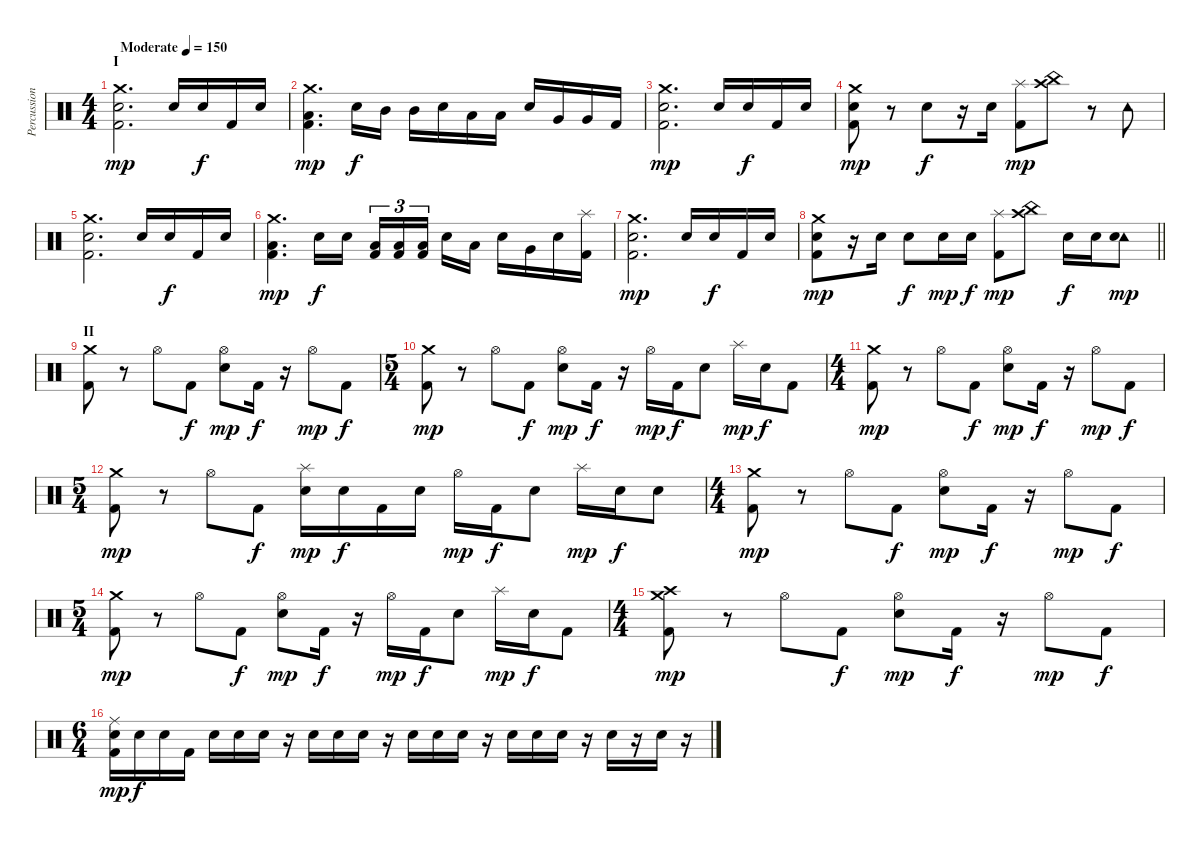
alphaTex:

\track ("Percussion" "Percussion") {instrument percussion}
\staff {score}
\articulation defaults
\ts (4 4)
\section ("" "I")
\tempo (150 "Moderate")
\clef neutral
\ks c
("Crash medium (hit)" "Electric Snare (hit)" "Kick (hit) 2").2{d dy mp} "Electric Snare (hit)".16 "Electric Snare (hit)".16{dy f} "Kick (hit) 2".16 "Electric Snare (hit)".16 |
("Crash medium (hit)" "Low Floor Tom (hit)" "Kick (hit) 2").4{d dy mp} "Electric Snare (hit)".16{dy f} "Mid Tom (hit)".16 "Mid Tom (hit)".16 "Electric Snare (hit)".16 "Low Tom (hit)".16 "Low Tom (hit)".16 "Electric Snare (hit)".16 "Very Low Tom (hit)".16 "Very Low Tom (hit)".16 "Kick (hit) 2".16 |
("Crash medium (hit)" "Electric Snare (hit)" "Kick (hit) 2").2{d dy mp} "Electric Snare (hit)".16 "Electric Snare (hit)".16{dy f} "Kick (hit) 2".16 "Electric Snare (hit)".16 |
("Crash medium (hit)" "Electric Snare (hit)" "Kick (hit) 2").8{dy mp} r.8 "Electric Snare (hit)".8{dy f} r.16 "Electric Snare (hit)".16 ("Splash (hit)" "Kick (hit) 2").8{dy mp} ("Crash high (hit)" "China (hit)").8 r.8 "Tambourine (hit)".8 |
("Crash medium (hit)" "Electric Snare (hit)" "Kick (hit) 2").2{d} "Electric Snare (hit)".16 "Electric Snare (hit)".16{dy f} "Kick (hit) 2".16 "Electric Snare (hit)".16 |
("Crash medium (hit)" "Low Floor Tom (hit)" "Kick (hit) 2").4{d dy mp} "Electric Snare (hit)".16{dy f} "Electric Snare (hit)".16 ("Low Floor Tom (hit)" "Kick (hit) 2").16{tu (3 2)} ("Low Floor Tom (hit)" "Kick (hit) 2").16{tu (3 2)} ("Low Floor Tom (hit)" "Kick (hit) 2").16{tu (3 2) beam splitsecondary} "Electric Snare (hit)".16 "Low Tom (hit)".16 "Electric Snare (hit)".16 "Very Low Tom (hit)".16 "Electric Snare (hit)".16 ("Splash (hit)" "Kick (hit) 2").16 |
("Crash medium (hit)" "Electric Snare (hit)" "Kick (hit) 2").2{d dy mp} "Electric Snare (hit)".16 "Electric Snare (hit)".16{dy f} "Kick (hit) 2".16 "Electric Snare (hit)".16 |
\barLineRight lightlight
("Crash medium (hit)" "Electric Snare (hit)" "Kick (hit) 2").8{dy mp} r.16 "Electric Snare (hit)".16 "Electric Snare (hit)".8{dy f} "Electric Snare (hit)".16{dy mp} "Electric Snare (hit)".16{dy f} ("Splash (hit)" "Kick (hit) 2").8{dy mp} ("Crash high (hit)" "China (hit)").8 "Electric Snare (hit)".16{dy f} "Electric Snare (hit)".16 ("Tambourine (hit)" "Electric Snare (hit)").8{dy mp} |
\section ("" "II")
("Crash medium (hit)" "Kick (hit) 2").8 r.8 "Hi-Hat (open)".8 "Kick (hit) 2".8{dy f} ("Hi-Hat (open)" "Electric Snare (hit)").8{dy mp} "Kick (hit) 2".16{dy f} r.16 "Hi-Hat (open)".8{dy mp} "Kick (hit) 2".8{dy f} |
\ts (5 4)
("Crash medium (hit)" "Kick (hit) 2").8{dy mp} r.8 "Hi-Hat (open)".8 "Kick (hit) 2".8{dy f} ("Hi-Hat (open)" "Electric Snare (hit)").8{dy mp} "Kick (hit) 2".16{dy f} r.16 "Hi-Hat (open)".16{dy mp} "Kick (hit) 2".16{dy f} "Electric Snare (hit)".8 "Splash (hit)".16{dy mp} "Electric Snare (hit)".16{dy f} "Kick (hit) 2".8 |
\ts (4 4)
("Crash medium (hit)" "Kick (hit) 2").8{dy mp} r.8 "Hi-Hat (open)".8 "Kick (hit) 2".8{dy f} ("Hi-Hat (open)" "Electric Snare (hit)").8{dy mp} "Kick (hit) 2".16{dy f} r.16 "Hi-Hat (open)".8{dy mp} "Kick (hit) 2".8{dy f} |
\ts (5 4)
("Crash medium (hit)" "Kick (hit) 2").8{dy mp} r.8 "Hi-Hat (open)".8 "Kick (hit) 2".8{dy f} ("Splash (hit)" "Electric Snare (hit)").16{dy mp} "Electric Snare (hit)".16{dy f} "Kick (hit) 2".16 "Electric Snare (hit)".16 "Hi-Hat (open)".16{dy mp} "Kick (hit) 2".16{dy f} "Electric Snare (hit)".8 "Splash (hit)".16{dy mp} "Electric Snare (hit)".16{dy f} "Electric Snare (hit)".8 |
\ts (4 4)
("Crash medium (hit)" "Kick (hit) 2").8{dy mp} r.8 "Hi-Hat (open)".8 "Kick (hit) 2".8{dy f} ("Hi-Hat (open)" "Electric Snare (hit)").8{dy mp} "Kick (hit) 2".16{dy f} r.16 "Hi-Hat (open)".8{dy mp} "Kick (hit) 2".8{dy f} |
\ts (5 4)
("Crash medium (hit)" "Kick (hit) 2").8{dy mp} r.8 "Hi-Hat (open)".8 "Kick (hit) 2".8{dy f} ("Hi-Hat (open)" "Electric Snare (hit)").8{dy mp} "Kick (hit) 2".16{dy f} r.16 "Hi-Hat (open)".16{dy mp} "Kick (hit) 2".16{dy f} "Electric Snare (hit)".8 "Splash (hit)".16{dy mp} "Electric Snare (hit)".16{dy f} "Kick (hit) 2".8 |
\ts (4 4)
("Crash high (hit)" "Crash medium (hit)" "Kick (hit) 2").8{dy mp} r.8 "Hi-Hat (open)".8 "Kick (hit) 2".8{dy f} ("Hi-Hat (open)" "Electric Snare (hit)").8{dy mp} "Kick (hit) 2".16{dy f} r.16 "Hi-Hat (open)".8{dy mp} "Kick (hit) 2".8{dy f} |
\ts (6 4)
("Ride (middle)" "Electric Snare (hit)" "Kick (hit) 2").16{dy mp} "Electric Snare (hit)".16{dy f} "Electric Snare (hit)".16 "Kick (hit) 2".16 "Electric Snare (hit)".16 "Electric Snare (hit)".16 "Electric Snare (hit)".16 r.16 "Electric Snare (hit)".16 "Electric Snare (hit)".16 "Electric Snare (hit)".16 r.16 "Electric Snare (hit)".16 "Electric Snare (hit)".16 "Electric Snare (hit)".16 r.16 "Electric Snare (hit)".16 "Electric Snare (hit)".16 "Electric Snare (hit)".16 r.16 "Electric Snare (hit)".16 r.16 "Electric Snare (hit)".16 r.16
